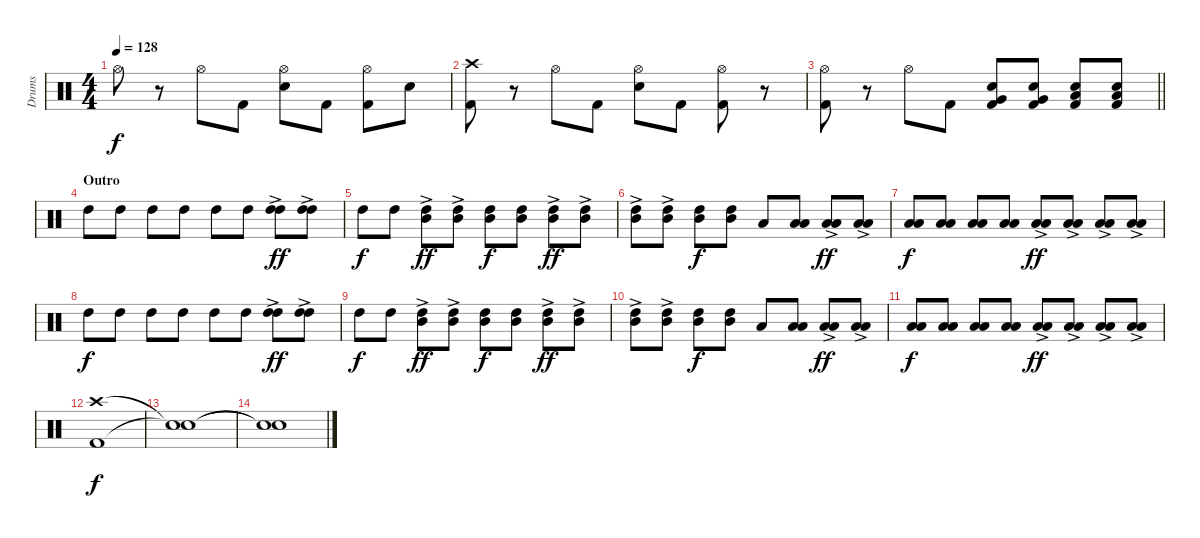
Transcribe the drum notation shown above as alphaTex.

\track ("Drums" "Drums") {instrument percussion}
\staff {score}
\articulation defaults
\ts (4 4)
\tempo 128
\clef neutral
\ks c "Hi-Hat (open)".8{dy f}
r.8 "Hi-Hat (open)".8 "Kick (hit) 2".8 ("Hi-Hat (open)" "Electric Snare (hit)").8 "Kick (hit) 2".8 ("Hi-Hat (open)" "Kick (hit) 2").8 "Electric Snare (hit)".8 |
("Crash high (hit)" "Kick (hit) 2").8 r.8 "Hi-Hat (open)".8 "Kick (hit) 2".8 ("Hi-Hat (open)" "Electric Snare (hit)").8 "Kick (hit) 2".8 ("Hi-Hat (open)" "Kick (hit) 2").8 r.8 |
\barLineRight lightlight
("Hi-Hat (open)" "Kick (hit) 2").8 r.8 "Hi-Hat (open)".8 "Kick (hit) 2".8 ("Electric Snare (hit)" "Very Low Tom (hit)" "Kick (hit) 2").8 ("Electric Snare (hit)" "Very Low Tom (hit)" "Kick (hit) 2").8 ("Electric Snare (hit)" "Low Floor Tom (hit)" "Kick (hit) 2").8 ("Electric Snare (hit)" "Low Floor Tom (hit)" "Kick (hit) 2").8 |
\section ("" "Outro")
"High Tom (hit)".8{volume 13 balance 13} "High Tom (hit)".8 "High Tom (hit)".8 "High Tom (hit)".8 "High Tom (hit)".8 "High Tom (hit)".8 ("High Tom (hit)"{ac} "High Tom (hit)"{ac}).8{dy ff volume 16} ("High Tom (hit)"{ac} "High Tom (hit)"{ac}).8 |
"High Tom (hit)".8{dy f volume 13 balance 11} "High Tom (hit)".8 ("High Tom (hit)"{ac} "Mid Tom (hit)"{ac}).8{dy ff volume 16} ("High Tom (hit)"{ac} "Mid Tom (hit)"{ac}).8 ("High Tom (hit)" "Mid Tom (hit)").8{dy f volume 13} ("High Tom (hit)" "Mid Tom (hit)").8 ("High Tom (hit)"{ac} "Mid Tom (hit)"{ac}).8{dy ff volume 16} ("High Tom (hit)"{ac} "Mid Tom (hit)"{ac}).8 |
("High Tom (hit)"{ac} "Mid Tom (hit)"{ac}).8 ("High Tom (hit)"{ac} "Mid Tom (hit)"{ac}).8 ("High Tom (hit)" "Mid Tom (hit)").8{dy f volume 13 balance 6} ("High Tom (hit)" "Mid Tom (hit)").8 "Low Tom (hit)".8 ("Low Tom (hit)" "Low Tom (hit)").8 ("Low Tom (hit)"{ac} "Low Tom (hit)"{ac}).8{dy ff volume 16} ("Low Tom (hit)"{ac} "Low Tom (hit)"{ac}).8 |
("Low Tom (hit)" "Low Floor Tom (hit)").8{dy f volume 13 balance 4} ("Low Tom (hit)" "Low Floor Tom (hit)").8 ("Low Tom (hit)" "Low Floor Tom (hit)").8 ("Low Tom (hit)" "Low Floor Tom (hit)").8 ("Low Floor Tom (hit)"{ac} "Low Floor Tom (hit)"{ac}).8{dy ff volume 16} ("Low Floor Tom (hit)"{ac} "Low Floor Tom (hit)"{ac}).8 ("Low Floor Tom (hit)"{ac} "Low Floor Tom (hit)"{ac}).8 ("Low Floor Tom (hit)"{ac} "Low Floor Tom (hit)"{ac}).8 |
"High Tom (hit)".8{dy f volume 13 balance 13} "High Tom (hit)".8 "High Tom (hit)".8 "High Tom (hit)".8 "High Tom (hit)".8 "High Tom (hit)".8 ("High Tom (hit)"{ac} "High Tom (hit)"{ac}).8{dy ff volume 16} ("High Tom (hit)"{ac} "High Tom (hit)"{ac}).8 |
"High Tom (hit)".8{dy f volume 13 balance 11} "High Tom (hit)".8 ("High Tom (hit)"{ac} "Mid Tom (hit)"{ac}).8{dy ff volume 16} ("High Tom (hit)"{ac} "Mid Tom (hit)"{ac}).8 ("High Tom (hit)" "Mid Tom (hit)").8{dy f volume 13} ("High Tom (hit)" "Mid Tom (hit)").8 ("High Tom (hit)"{ac} "Mid Tom (hit)"{ac}).8{dy ff volume 16} ("High Tom (hit)"{ac} "Mid Tom (hit)"{ac}).8 |
("High Tom (hit)"{ac} "Mid Tom (hit)"{ac}).8 ("High Tom (hit)"{ac} "Mid Tom (hit)"{ac}).8 ("High Tom (hit)" "Mid Tom (hit)").8{dy f volume 13 balance 6} ("High Tom (hit)" "Mid Tom (hit)").8 "Low Tom (hit)".8 ("Low Tom (hit)" "Low Tom (hit)").8 ("Low Tom (hit)"{ac} "Low Tom (hit)"{ac}).8{dy ff volume 16} ("Low Tom (hit)"{ac} "Low Tom (hit)"{ac}).8 |
("Low Tom (hit)" "Low Floor Tom (hit)").8{dy f volume 13 balance 4} ("Low Tom (hit)" "Low Floor Tom (hit)").8 ("Low Tom (hit)" "Low Floor Tom (hit)").8 ("Low Tom (hit)" "Low Floor Tom (hit)").8 ("Low Floor Tom (hit)"{ac} "Low Floor Tom (hit)"{ac}).8{dy ff volume 16} ("Low Floor Tom (hit)"{ac} "Low Floor Tom (hit)"{ac}).8 ("Low Floor Tom (hit)"{ac} "Low Floor Tom (hit)"{ac}).8 ("Low Floor Tom (hit)"{ac} "Low Floor Tom (hit)"{ac}).8 |
("Crash high (hit)" "Kick (hit) 2").1{dy f} |
("Snare (hit)"{t} "Snare (hit)"{t}).1 |
("Snare (hit)"{t} "Snare (hit)"{t}).1
